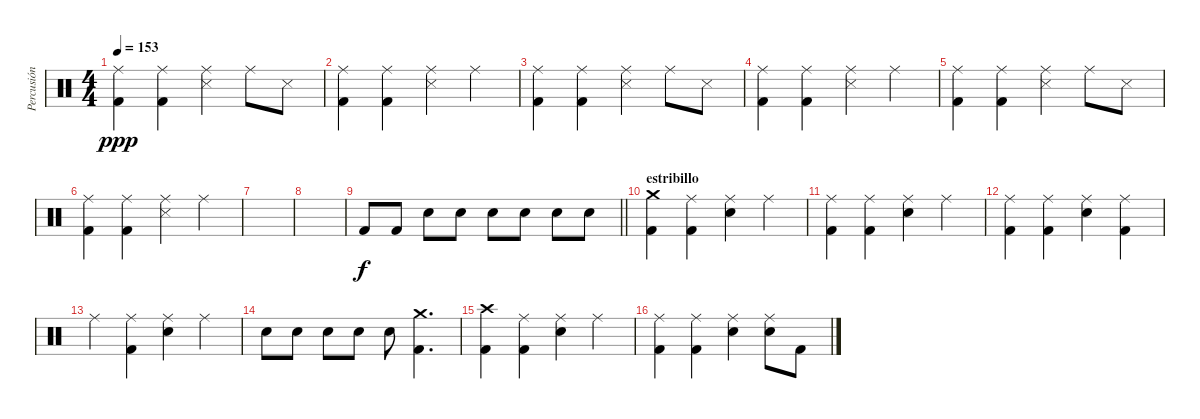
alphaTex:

\track ("Percusión" "Percusión") {instrument percussion}
\staff {score}
\articulation defaults
\ts (4 4)
\tempo 153
\clef neutral
\ks c
("Ride (middle)" "Kick (hit) 2").4{dy ppp} ("Ride (middle)" "Kick (hit) 2").4 ("Ride (middle)" "Snare (side stick) 3").4 "Ride (middle)".8 "Snare (side stick) 3".8 |
("Ride (middle)" "Kick (hit) 2").4 ("Ride (middle)" "Kick (hit) 2").4 ("Ride (middle)" "Snare (side stick) 3").4 "Ride (middle)".4 |
("Ride (middle)" "Kick (hit) 2").4 ("Ride (middle)" "Kick (hit) 2").4 ("Ride (middle)" "Snare (side stick) 3").4 "Ride (middle)".8 "Snare (side stick) 3".8 |
("Ride (middle)" "Kick (hit) 2").4 ("Ride (middle)" "Kick (hit) 2").4 ("Ride (middle)" "Snare (side stick) 3").4 "Ride (middle)".4 |
("Ride (middle)" "Kick (hit) 2").4 ("Ride (middle)" "Kick (hit) 2").4 ("Ride (middle)" "Snare (side stick) 3").4 "Ride (middle)".8 "Snare (side stick) 3".8 |
("Ride (middle)" "Kick (hit) 2").4 ("Ride (middle)" "Kick (hit) 2").4 ("Ride (middle)" "Snare (side stick) 3").4 "Ride (middle)".4 |
|
|
\barLineRight lightlight "Kick (hit) 2".8{dy f} "Kick (hit) 2".8 "Electric Snare (hit)".8 "Electric Snare (hit)".8 "Electric Snare (hit)".8 "Electric Snare (hit)".8 "Electric Snare (hit)".8 "Electric Snare (hit)".8
|
\section ("" "estribillo")
("Crash medium (hit)" "Kick (hit) 2").4 ("Ride (middle)" "Kick (hit) 2").4 ("Ride (middle)" "Electric Snare (hit)").4 "Ride (middle)".4 |
("Ride (middle)" "Kick (hit) 2").4 ("Ride (middle)" "Kick (hit) 2").4 ("Ride (middle)" "Electric Snare (hit)").4 "Ride (middle)".4 |
("Ride (middle)" "Kick (hit) 2").4 ("Ride (middle)" "Kick (hit) 2").4 ("Ride (middle)" "Electric Snare (hit)").4 ("Ride (middle)" "Kick (hit) 2").4 |
"Ride (middle)".4 ("Ride (middle)" "Kick (hit) 2").4 ("Ride (middle)" "Electric Snare (hit)").4 "Ride (middle)".4 |
"Electric Snare (hit)".8 "Electric Snare (hit)".8 "Electric Snare (hit)".8 "Electric Snare (hit)".8 "Electric Snare (hit)".8 ("Crash medium (hit)" "Kick (hit) 2").4{d} |
("Crash high (hit)" "Kick (hit) 2").4 ("Ride (middle)" "Kick (hit) 2").4 ("Ride (middle)" "Electric Snare (hit)").4 "Ride (middle)".4 |
("Ride (middle)" "Kick (hit) 2").4 ("Ride (middle)" "Kick (hit) 2").4 ("Ride (middle)" "Electric Snare (hit)").4 ("Ride (middle)" "Electric Snare (hit)").8 "Kick (hit) 2".8
